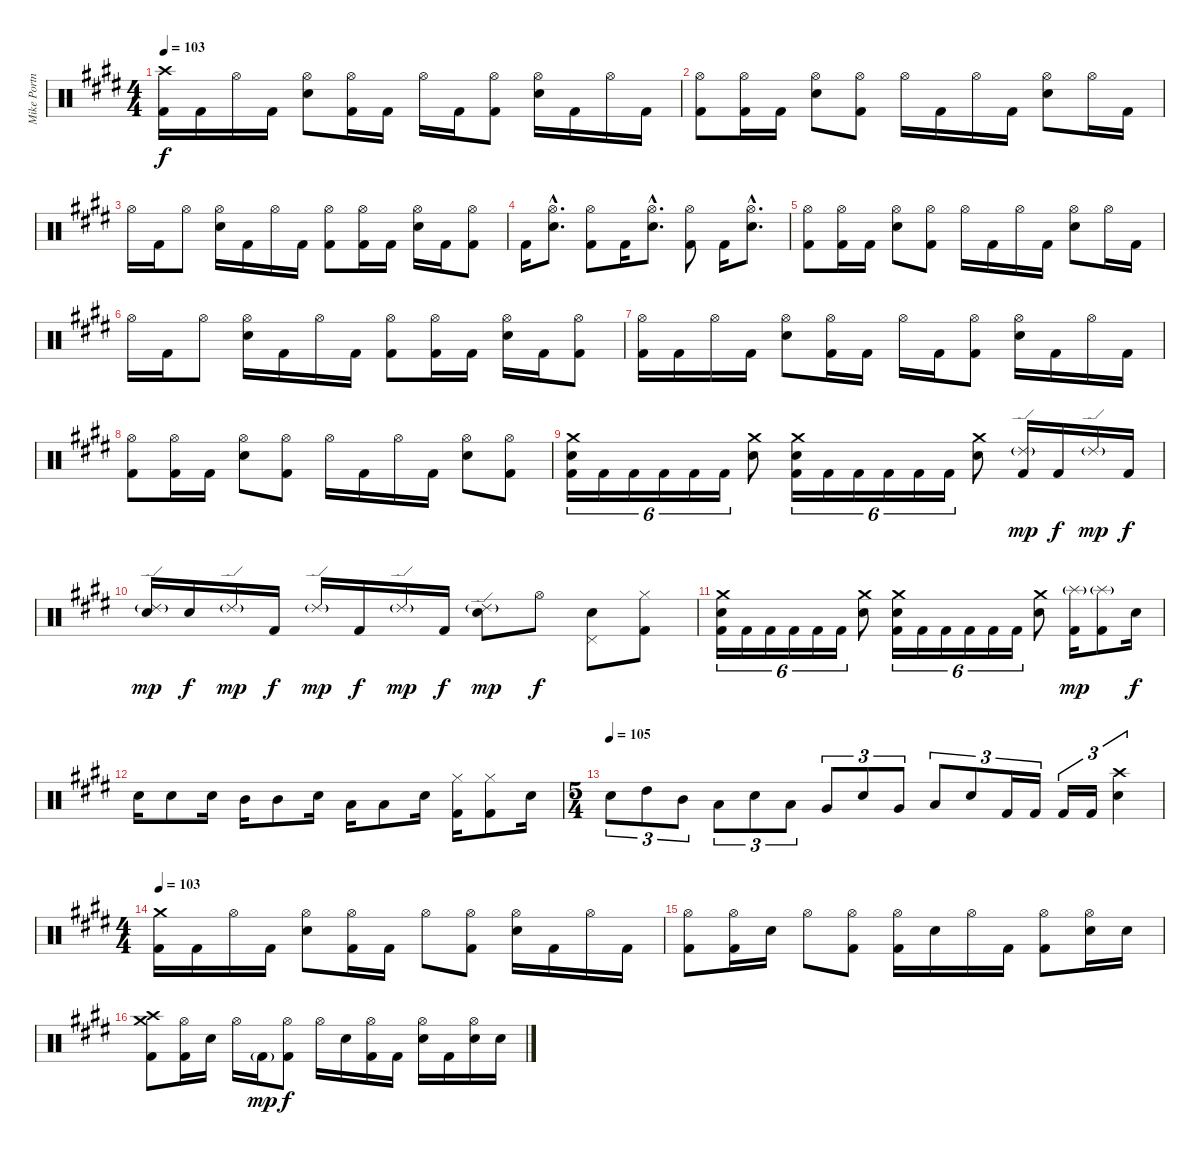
\track ("Mike Portnoy" "Mike Portn") {instrument percussion}
\staff {score}
\articulation defaults
\ts (4 4)
\tempo 103
\clef neutral
\ks e
("Crash high (hit)" "Kick (hit) 2").16{dy f} "Kick (hit) 2".16 "Hi-Hat (open)".16 "Kick (hit) 2".16 ("Hi-Hat (open)" "Snare (hit) 2").8 ("Hi-Hat (open)" "Kick (hit) 2").16 "Kick (hit) 2".16 "Hi-Hat (open)".16 "Kick (hit) 2".16 ("Hi-Hat (open)" "Kick (hit) 2").8 ("Hi-Hat (open)" "Snare (hit) 2").16 "Kick (hit) 2".16 "Hi-Hat (open)".16 "Kick (hit) 2".16 |
("Hi-Hat (open)" "Kick (hit) 2").8 ("Hi-Hat (open)" "Kick (hit) 2").16 "Kick (hit) 2".16 ("Hi-Hat (open)" "Snare (hit) 2").8 ("Hi-Hat (open)" "Kick (hit) 2").8 "Hi-Hat (open)".16 "Kick (hit) 2".16 "Hi-Hat (open)".16 "Kick (hit) 2".16 ("Hi-Hat (open)" "Snare (hit) 2").8 "Hi-Hat (open)".16 "Kick (hit) 2".16 |
"Hi-Hat (open)".16 "Kick (hit) 2".16 "Hi-Hat (open)".8 ("Hi-Hat (open)" "Snare (hit) 2").16 "Kick (hit) 2".16 "Hi-Hat (open)".16 "Kick (hit) 2".16 ("Hi-Hat (open)" "Kick (hit) 2").8 ("Hi-Hat (open)" "Kick (hit) 2").16 "Kick (hit) 2".16 ("Hi-Hat (open)" "Snare (hit) 2").16 "Kick (hit) 2".16 ("Hi-Hat (open)" "Kick (hit) 2").8 |
"Kick (hit) 2".16 ("Hi-Hat (open)"{hac} "Snare (hit) 2"{hac}).8{d} ("Hi-Hat (open)" "Kick (hit) 2").8 "Kick (hit) 2".16 ("Hi-Hat (open)"{hac} "Snare (hit) 2"{hac}).8{d} ("Hi-Hat (open)" "Kick (hit) 2").8 "Kick (hit) 2".16 ("Hi-Hat (open)"{hac} "Snare (hit) 2"{hac}).8{d} |
("Hi-Hat (open)" "Kick (hit) 2").8 ("Hi-Hat (open)" "Kick (hit) 2").16 "Kick (hit) 2".16 ("Hi-Hat (open)" "Snare (hit) 2").8 ("Hi-Hat (open)" "Kick (hit) 2").8 "Hi-Hat (open)".16 "Kick (hit) 2".16 "Hi-Hat (open)".16 "Kick (hit) 2".16 ("Hi-Hat (open)" "Snare (hit) 2").8 "Hi-Hat (open)".16 "Kick (hit) 2".16 |
"Hi-Hat (open)".16 "Kick (hit) 2".16 "Hi-Hat (open)".8 ("Hi-Hat (open)" "Snare (hit) 2").16 "Kick (hit) 2".16 "Hi-Hat (open)".16 "Kick (hit) 2".16 ("Hi-Hat (open)" "Kick (hit) 2").8 ("Hi-Hat (open)" "Kick (hit) 2").16 "Kick (hit) 2".16 ("Hi-Hat (open)" "Snare (hit) 2").16 "Kick (hit) 2".16 ("Hi-Hat (open)" "Kick (hit) 2").8 |
("Hi-Hat (open)" "Kick (hit) 2").16 "Kick (hit) 2".16 "Hi-Hat (open)".16 "Kick (hit) 2".16 ("Hi-Hat (open)" "Snare (hit) 2").8 ("Hi-Hat (open)" "Kick (hit) 2").16 "Kick (hit) 2".16 "Hi-Hat (open)".16 "Kick (hit) 2".16 ("Hi-Hat (open)" "Kick (hit) 2").8 ("Hi-Hat (open)" "Snare (hit) 2").16 "Kick (hit) 2".16 "Hi-Hat (open)".16 "Kick (hit) 2".16 |
("Hi-Hat (open)" "Kick (hit) 2").8 ("Hi-Hat (open)" "Kick (hit) 2").16 "Kick (hit) 2".16 ("Hi-Hat (open)" "Snare (hit) 2").8 ("Hi-Hat (open)" "Kick (hit) 2").8 "Hi-Hat (open)".16 "Kick (hit) 2".16 "Hi-Hat (open)".16 "Kick (hit) 2".16 ("Hi-Hat (open)" "Snare (hit) 2").8 ("Hi-Hat (open)" "Kick (hit) 2").8 |
("Crash medium (hit)" "Snare (hit) 2" "Kick (hit) 2").16{tu (6 4)} "Kick (hit) 2".16{tu (6 4)} "Kick (hit) 2".16{tu (6 4)} "Kick (hit) 2".16{tu (6 4)} "Kick (hit) 2".16{tu (6 4)} "Kick (hit) 2".16{tu (6 4)} ("Crash medium (hit)" "Snare (hit) 2").8 ("Crash medium (hit)" "Snare (hit) 2" "Kick (hit) 2").16{tu (6 4)} "Kick (hit) 2".16{tu (6 4)} "Kick (hit) 2".16{tu (6 4)} "Kick (hit) 2".16{tu (6 4)} "Kick (hit) 2".16{tu (6 4)} "Kick (hit) 2".16{tu (6 4)} ("Crash medium (hit)" "Snare (hit) 2").8 ("Ride (edge) 2"{g} "Kick (hit) 2").16{dy mp} "Kick (hit) 2".16{dy f} "Ride (edge) 2"{g}.16{dy mp} "Kick (hit) 2".16{dy f} |
("Ride (edge) 2"{g} "Snare (hit) 2").16{dy mp} "Snare (hit) 2".16{dy f} "Ride (edge) 2"{g}.16{dy mp} "Kick (hit) 2".16{dy f} "Ride (edge) 2"{g}.16{dy mp} "Kick (hit) 2".16{dy f} "Ride (edge) 2"{g}.16{dy mp} "Kick (hit) 2".16{dy f} ("Ride (edge) 2"{g} "Snare (hit) 2").8{dy mp} "Hi-Hat (open)".8{dy f} ("Snare (hit) 2" "Pedal Hi-Hat (hit)").8 ("Hi-Hat (closed)" "Kick (hit) 2").8 |
("Crash medium (hit)" "Snare (hit) 2" "Kick (hit) 2").16{tu (6 4)} "Kick (hit) 2".16{tu (6 4)} "Kick (hit) 2".16{tu (6 4)} "Kick (hit) 2".16{tu (6 4)} "Kick (hit) 2".16{tu (6 4)} "Kick (hit) 2".16{tu (6 4)} ("Crash medium (hit)" "Snare (hit) 2").8 ("Crash medium (hit)" "Snare (hit) 2" "Kick (hit) 2").16{tu (6 4)} "Kick (hit) 2".16{tu (6 4)} "Kick (hit) 2".16{tu (6 4)} "Kick (hit) 2".16{tu (6 4)} "Kick (hit) 2".16{tu (6 4)} "Kick (hit) 2".16{tu (6 4)} ("Crash medium (hit)" "Snare (hit) 2").8 ("Splash (hit)"{g} "Kick (hit) 2").16{dy mp} ("Splash (hit)"{g} "Kick (hit) 2").8 "Snare (hit) 2".16{dy f} |
"Snare (hit) 2".16 "Snare (hit) 2".8 "Snare (hit) 2".16 "Mid Tom (hit)".16 "Mid Tom (hit)".8 "Snare (hit) 2".16 "Low Floor Tom (hit)".16 "Low Floor Tom (hit)".8 "Snare (hit) 2".16 ("Hi-Hat (closed)" "Kick (hit) 2").16 ("Hi-Hat (closed)" "Kick (hit) 2").8 "Snare (hit) 2".16 |
\ts (5 4)
\tempo (105)
"Snare (hit) 2".8{tu (3 2)} "High Tom (hit)".8{tu (3 2)} "Mid Tom (hit)".8{tu (3 2)} "Low Tom (hit)".8{tu (3 2)} "Snare (hit) 2".8{tu (3 2)} "Low Tom (hit)".8{tu (3 2)} "Very Low Tom (hit)".8{tu (3 2)} "Snare (hit) 2".8{tu (3 2)} "Very Low Tom (hit)".8{tu (3 2)} "Low Floor Tom (hit)".8{tu (3 2)} "Snare (hit) 2".8{tu (3 2)} "Kick (hit) 2".16{tu (3 2)} "Kick (hit) 2".16{tu (3 2)} "Kick (hit) 2".16{tu (3 2)} "Kick (hit) 2".16{tu (3 2)} ("Crash high (hit)" "Snare (hit) 2").4{tu (3 2)} |
\ts (4 4)
\tempo 103
("Crash medium (hit)" "Kick (hit) 2").16 "Kick (hit) 2".16 "Hi-Hat (open)".16 "Kick (hit) 2".16 ("Hi-Hat (open)" "Snare (hit) 2").8 ("Hi-Hat (open)" "Kick (hit) 2").16 "Kick (hit) 2".16 "Hi-Hat (open)".8 ("Hi-Hat (open)" "Kick (hit) 2").8 ("Hi-Hat (open)" "Snare (hit) 2").16 "Kick (hit) 2".16 "Hi-Hat (open)".16 "Kick (hit) 2".16 |
("Hi-Hat (open)" "Kick (hit) 2").8 ("Hi-Hat (open)" "Kick (hit) 2").16 "Snare (hit) 2".16 "Hi-Hat (open)".8 ("Hi-Hat (open)" "Kick (hit) 2").8 ("Hi-Hat (open)" "Kick (hit) 2").16 "Snare (hit) 2".16 "Hi-Hat (open)".16 "Kick (hit) 2".16 ("Hi-Hat (open)" "Kick (hit) 2").8 ("Hi-Hat (open)" "Snare (hit) 2").16 "Snare (hit) 2".16 |
("Crash high (hit)" "Crash medium (hit)" "Kick (hit) 2").8 ("Hi-Hat (open)" "Kick (hit) 2").16 "Snare (hit) 2".16 "Hi-Hat (open)".16 "Kick (hit) 2"{g}.16{dy mp} ("Hi-Hat (open)" "Kick (hit) 2").8{dy f} "Hi-Hat (open)".16 "Snare (hit) 2".16 ("Hi-Hat (open)" "Kick (hit) 2").16 "Kick (hit) 2".16 ("Hi-Hat (open)" "Snare (hit) 2").16 "Kick (hit) 2".16 ("Hi-Hat (open)" "Snare (hit) 2").16 "Snare (hit) 2".16
